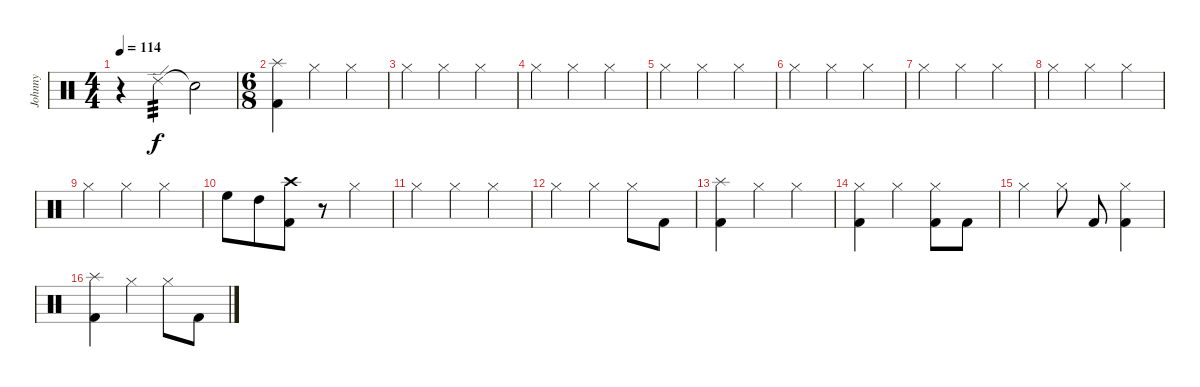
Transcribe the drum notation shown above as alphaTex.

\track ("Johnny" "Johnny") {instrument percussion}
\staff {score}
\articulation defaults
\ts (4 4)
\tempo 114
\clef neutral
\ks c
r.4{dy f volume 0} "Ride (edge) 2".4{tp 3 volume 13} "Snare (hit)"{t}.2 |
\ts (6 8)
("Splash (hit)" "Kick (hit) 2").4 "Hi-Hat (closed)".4 "Hi-Hat (closed)".4 |
"Hi-Hat (closed)".4 "Hi-Hat (closed)".4 "Hi-Hat (closed)".4 |
"Hi-Hat (closed)".4 "Hi-Hat (closed)".4 "Hi-Hat (closed)".4 |
"Hi-Hat (closed)".4 "Hi-Hat (closed)".4 "Hi-Hat (closed)".4 |
"Hi-Hat (closed)".4 "Hi-Hat (closed)".4 "Hi-Hat (closed)".4 |
"Hi-Hat (closed)".4 "Hi-Hat (closed)".4 "Hi-Hat (closed)".4 |
"Hi-Hat (closed)".4 "Hi-Hat (closed)".4 "Hi-Hat (closed)".4 |
"Hi-Hat (closed)".4 "Hi-Hat (closed)".4 "Hi-Hat (closed)".4 |
"High Floor Tom (hit)".8 "High Tom (hit)".8 ("Kick (hit) 2" "Crash high (hit)").8 r.8 "Hi-Hat (closed)".4 |
"Hi-Hat (closed)".4 "Hi-Hat (closed)".4 "Hi-Hat (closed)".4 |
"Hi-Hat (closed)".4 "Hi-Hat (closed)".4 "Hi-Hat (closed)".8 "Kick (hit) 2".8 |
("Splash (hit)" "Kick (hit) 2").4 "Hi-Hat (closed)".4 "Hi-Hat (closed)".4 |
("Hi-Hat (closed)" "Kick (hit) 2").4 "Hi-Hat (closed)".4 ("Hi-Hat (closed)" "Kick (hit) 2").8 "Kick (hit) 2".8 |
"Hi-Hat (closed)".4 "Hi-Hat (closed)".8 "Kick (hit) 2".8 ("Hi-Hat (closed)" "Kick (hit) 2").4 |
("Splash (hit)" "Kick (hit) 2").4 "Hi-Hat (closed)".4 "Hi-Hat (closed)".8 "Kick (hit) 2".8
